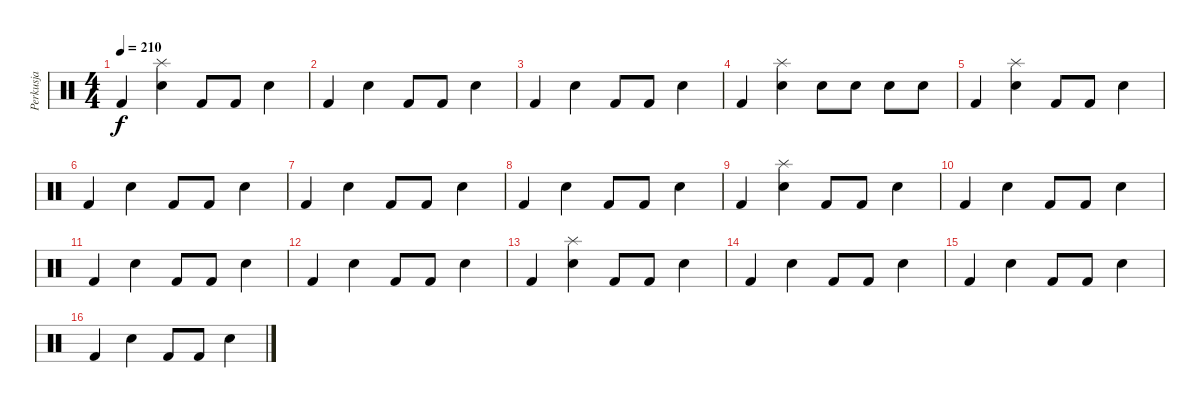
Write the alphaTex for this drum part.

\track ("Perkusja" "Perkusja") {instrument percussion}
\staff {score}
\articulation defaults
\ts (4 4)
\tempo 210
\clef neutral
\ks c "Kick (hit) 2".4{dy f}
("Snare (hit) 2" "Splash (hit)").4 "Kick (hit) 2".8 "Kick (hit) 2".8 "Snare (hit) 2".4 |
"Kick (hit) 2".4 "Snare (hit) 2".4 "Kick (hit) 2".8 "Kick (hit) 2".8 "Snare (hit) 2".4 |
"Kick (hit) 2".4 "Snare (hit) 2".4 "Kick (hit) 2".8 "Kick (hit) 2".8 "Snare (hit) 2".4 |
"Kick (hit) 2".4 ("Snare (hit) 2" "Splash (hit)").4 "Snare (hit) 2".8 "Snare (hit) 2".8 "Snare (hit) 2".8 "Snare (hit) 2".8 |
"Kick (hit) 2".4 ("Snare (hit) 2" "Splash (hit)").4 "Kick (hit) 2".8 "Kick (hit) 2".8 "Snare (hit) 2".4 |
"Kick (hit) 2".4 "Snare (hit) 2".4 "Kick (hit) 2".8 "Kick (hit) 2".8 "Snare (hit) 2".4 |
"Kick (hit) 2".4 "Snare (hit) 2".4 "Kick (hit) 2".8 "Kick (hit) 2".8 "Snare (hit) 2".4 |
"Kick (hit) 2".4 "Snare (hit) 2".4 "Kick (hit) 2".8 "Kick (hit) 2".8 "Snare (hit) 2".4 |
"Kick (hit) 2".4 ("Snare (hit) 2" "Splash (hit)").4 "Kick (hit) 2".8 "Kick (hit) 2".8 "Snare (hit) 2".4 |
"Kick (hit) 2".4 "Snare (hit) 2".4 "Kick (hit) 2".8 "Kick (hit) 2".8 "Snare (hit) 2".4 |
"Kick (hit) 2".4 "Snare (hit) 2".4 "Kick (hit) 2".8 "Kick (hit) 2".8 "Snare (hit) 2".4 |
"Kick (hit) 2".4 "Snare (hit) 2".4 "Kick (hit) 2".8 "Kick (hit) 2".8 "Snare (hit) 2".4 |
"Kick (hit) 2".4 ("Snare (hit) 2" "Splash (hit)").4 "Kick (hit) 2".8 "Kick (hit) 2".8 "Snare (hit) 2".4 |
"Kick (hit) 2".4 "Snare (hit) 2".4 "Kick (hit) 2".8 "Kick (hit) 2".8 "Snare (hit) 2".4 |
"Kick (hit) 2".4 "Snare (hit) 2".4 "Kick (hit) 2".8 "Kick (hit) 2".8 "Snare (hit) 2".4 |
"Kick (hit) 2".4 "Snare (hit) 2".4 "Kick (hit) 2".8 "Kick (hit) 2".8 "Snare (hit) 2".4
